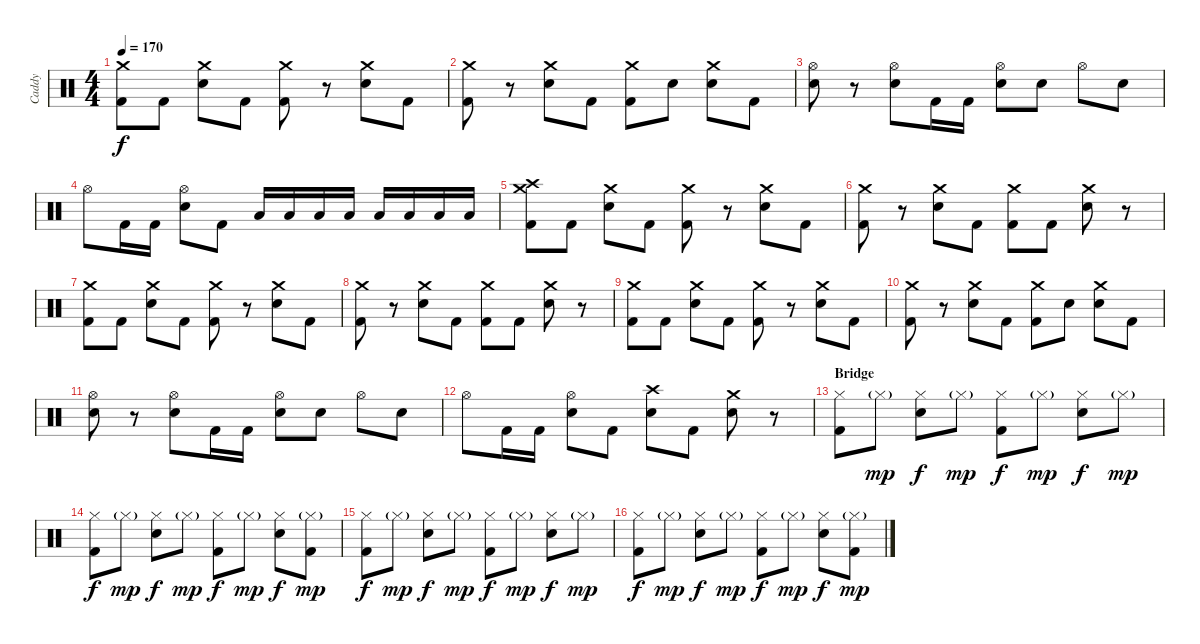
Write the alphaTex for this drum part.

\track ("Caddy" "Caddy") {instrument percussion}
\staff {score}
\articulation defaults
\ts (4 4)
\tempo 170
\clef neutral
\ks c
("Crash medium (hit)" "Kick (hit) 2").8{dy f} "Kick (hit) 2".8 ("Crash medium (hit)" "Electric Snare (hit)").8 "Kick (hit) 2".8 ("Crash medium (hit)" "Kick (hit) 2").8 r.8 ("Crash medium (hit)" "Electric Snare (hit)").8 "Kick (hit) 2".8 |
("Crash medium (hit)" "Kick (hit) 2").8 r.8 ("Crash medium (hit)" "Electric Snare (hit)").8 "Kick (hit) 2".8 ("Crash medium (hit)" "Kick (hit) 2").8 "Electric Snare (hit)".8 ("Crash medium (hit)" "Electric Snare (hit)").8 "Kick (hit) 2".8 |
("Hi-Hat (open)" "Electric Snare (hit)").8 r.8 ("Hi-Hat (open)" "Electric Snare (hit)").8 "Kick (hit) 2".16 "Kick (hit) 2".16 ("Hi-Hat (open)" "Electric Snare (hit)").8 "Electric Snare (hit)".8 "Hi-Hat (open)".8 "Electric Snare (hit)".8 |
"Hi-Hat (open)".8 "Kick (hit) 2".16 "Kick (hit) 2".16 ("Hi-Hat (open)" "Electric Snare (hit)").8 "Kick (hit) 2".8 "Low Tom (hit)".16 "Low Tom (hit)".16 "Low Floor Tom (hit)".16 "Low Floor Tom (hit)".16 "Low Tom (hit)".16 "Low Tom (hit)".16 "Low Floor Tom (hit)".16 "Low Floor Tom (hit)".16 |
("Crash high (hit)" "Crash medium (hit)" "Kick (hit) 2").8 "Kick (hit) 2".8 ("Crash medium (hit)" "Electric Snare (hit)").8 "Kick (hit) 2".8 ("Crash medium (hit)" "Kick (hit) 2").8 r.8 ("Crash medium (hit)" "Electric Snare (hit)").8 "Kick (hit) 2".8 |
("Crash medium (hit)" "Kick (hit) 2").8 r.8 ("Crash medium (hit)" "Electric Snare (hit)").8 "Kick (hit) 2".8 ("Crash medium (hit)" "Kick (hit) 2").8 "Kick (hit) 2".8 ("Crash medium (hit)" "Electric Snare (hit)").8 r.8 |
("Crash medium (hit)" "Kick (hit) 2").8 "Kick (hit) 2".8 ("Crash medium (hit)" "Electric Snare (hit)").8 "Kick (hit) 2".8 ("Crash medium (hit)" "Kick (hit) 2").8 r.8 ("Crash medium (hit)" "Electric Snare (hit)").8 "Kick (hit) 2".8 |
("Crash medium (hit)" "Kick (hit) 2").8 r.8 ("Crash medium (hit)" "Electric Snare (hit)").8 "Kick (hit) 2".8 ("Crash medium (hit)" "Kick (hit) 2").8 "Kick (hit) 2".8 ("Crash medium (hit)" "Electric Snare (hit)").8 r.8 |
("Crash medium (hit)" "Kick (hit) 2").8 "Kick (hit) 2".8 ("Crash medium (hit)" "Electric Snare (hit)").8 "Kick (hit) 2".8 ("Crash medium (hit)" "Kick (hit) 2").8 r.8 ("Crash medium (hit)" "Electric Snare (hit)").8 "Kick (hit) 2".8 |
("Crash medium (hit)" "Kick (hit) 2").8 r.8 ("Crash medium (hit)" "Electric Snare (hit)").8 "Kick (hit) 2".8 ("Crash medium (hit)" "Kick (hit) 2").8 "Electric Snare (hit)".8 ("Crash medium (hit)" "Electric Snare (hit)").8 "Kick (hit) 2".8 |
("Hi-Hat (open)" "Electric Snare (hit)").8 r.8 ("Hi-Hat (open)" "Electric Snare (hit)").8 "Kick (hit) 2".16 "Kick (hit) 2".16 ("Hi-Hat (open)" "Electric Snare (hit)").8 "Electric Snare (hit)".8 "Hi-Hat (open)".8 "Electric Snare (hit)".8 |
"Hi-Hat (open)".8 "Kick (hit) 2".16 "Kick (hit) 2".16 ("Hi-Hat (open)" "Electric Snare (hit)").8 "Kick (hit) 2".8 ("Crash high (hit)" "Electric Snare (hit)").8 "Kick (hit) 2".8 ("Crash medium (hit)" "Electric Snare (hit)").8 r.8 |
\section ("" "Bridge")
("Hi-Hat (closed)" "Kick (hit) 2").8 "Hi-Hat (closed)"{g}.8{dy mp} ("Hi-Hat (closed)" "Electric Snare (hit)").8{dy f} "Hi-Hat (closed)"{g}.8{dy mp} ("Hi-Hat (closed)" "Kick (hit) 2").8{dy f} "Hi-Hat (closed)"{g}.8{dy mp} ("Hi-Hat (closed)" "Electric Snare (hit)").8{dy f} "Hi-Hat (closed)"{g}.8{dy mp} |
("Hi-Hat (closed)" "Kick (hit) 2").8{dy f} "Hi-Hat (closed)"{g}.8{dy mp} ("Hi-Hat (closed)" "Electric Snare (hit)").8{dy f} "Hi-Hat (closed)"{g}.8{dy mp} ("Hi-Hat (closed)" "Kick (hit) 2").8{dy f} "Hi-Hat (closed)"{g}.8{dy mp} ("Hi-Hat (closed)" "Electric Snare (hit)").8{dy f} ("Hi-Hat (closed)"{g} "Kick (hit) 2").8{dy mp} |
("Hi-Hat (closed)" "Kick (hit) 2").8{dy f} "Hi-Hat (closed)"{g}.8{dy mp} ("Hi-Hat (closed)" "Electric Snare (hit)").8{dy f} "Hi-Hat (closed)"{g}.8{dy mp} ("Hi-Hat (closed)" "Kick (hit) 2").8{dy f} "Hi-Hat (closed)"{g}.8{dy mp} ("Hi-Hat (closed)" "Electric Snare (hit)").8{dy f} "Hi-Hat (closed)"{g}.8{dy mp} |
("Hi-Hat (closed)" "Kick (hit) 2").8{dy f} "Hi-Hat (closed)"{g}.8{dy mp} ("Hi-Hat (closed)" "Electric Snare (hit)").8{dy f} "Hi-Hat (closed)"{g}.8{dy mp} ("Hi-Hat (closed)" "Kick (hit) 2").8{dy f} "Hi-Hat (closed)"{g}.8{dy mp} ("Hi-Hat (closed)" "Electric Snare (hit)").8{dy f} ("Hi-Hat (closed)"{g} "Kick (hit) 2").8{dy mp}
